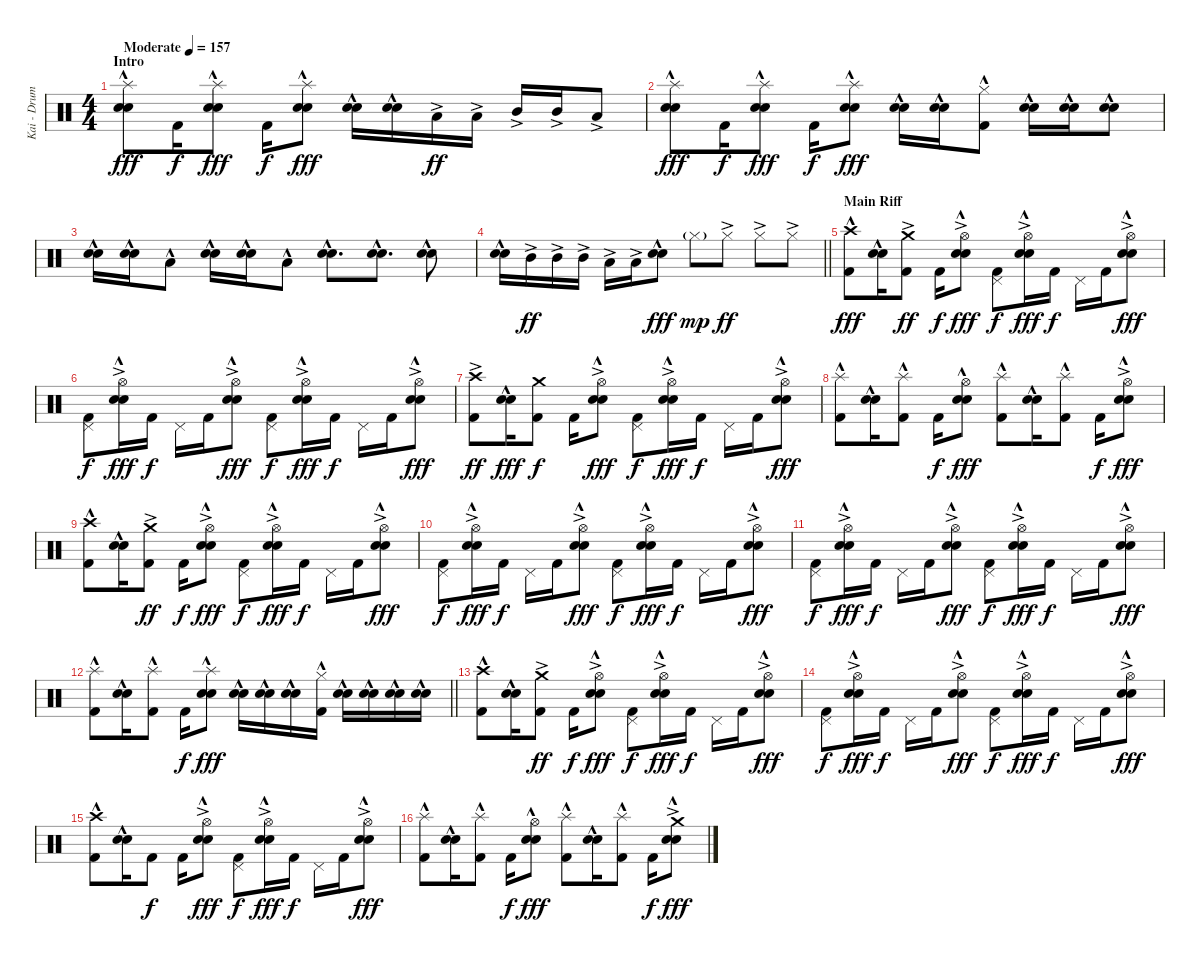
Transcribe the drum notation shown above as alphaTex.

\track ("Kai - Drums" "Kai - Drum") {instrument percussion}
\staff {score}
\articulation defaults
\ts (4 4)
\section ("" "Intro")
\tempo (157 "Moderate")
\clef neutral
\ks c
("Splash (hit)"{hac} "Electric Snare (hit)"{hac} "Snare (hit) 2").8{dy fff} "Kick (hit) 2".16{dy f} ("Splash (hit)"{hac} "Electric Snare (hit)"{hac} "Snare (hit) 2").8{dy fff} "Kick (hit) 2".16{dy f} ("Splash (hit)"{hac} "Electric Snare (hit)"{hac} "Snare (hit) 2").8{dy fff} ("Electric Snare (hit)"{hac} "Snare (hit) 2").16 ("Electric Snare (hit)"{hac} "Snare (hit) 2").16 "Low Tom (hit)"{ac}.16{dy ff} "Low Tom (hit)"{ac}.16 "Mid Tom (hit)"{ac}.16 "Mid Tom (hit)"{ac}.16 "Low Tom (hit)"{ac}.8 |
("Splash (hit)"{hac} "Electric Snare (hit)"{hac} "Snare (hit) 2").8{dy fff} "Kick (hit) 2".16{dy f} ("Splash (hit)"{hac} "Electric Snare (hit)"{hac} "Snare (hit) 2").8{dy fff} "Kick (hit) 2".16{dy f} ("Splash (hit)"{hac} "Electric Snare (hit)"{hac} "Snare (hit) 2").8{dy fff} ("Electric Snare (hit)"{hac} "Snare (hit) 2").16 ("Electric Snare (hit)"{hac} "Snare (hit) 2").16 ("Hi-Hat (closed)"{hac} "Kick (hit) 2").8 ("Electric Snare (hit)"{hac} "Snare (hit) 2").16 ("Electric Snare (hit)"{hac} "Snare (hit) 2").16 ("Electric Snare (hit)"{hac} "Snare (hit) 2").8 |
("Electric Snare (hit)"{hac} "Snare (hit) 2").16 ("Electric Snare (hit)"{hac} "Snare (hit) 2").16 "Low Tom (hit)"{hac}.8 ("Electric Snare (hit)"{hac} "Snare (hit) 2").16 ("Electric Snare (hit)"{hac} "Snare (hit) 2").16 "Low Tom (hit)"{hac}.8 ("Electric Snare (hit)"{hac} "Snare (hit) 2").8{d} ("Electric Snare (hit)"{hac} "Snare (hit) 2").8{d} ("Electric Snare (hit)"{hac} "Snare (hit) 2").8 |
\barLineRight lightlight
("Electric Snare (hit)"{hac} "Snare (hit) 2").16 "Mid Tom (hit)"{ac}.16{dy ff} "Mid Tom (hit)"{ac}.16 "Mid Tom (hit)"{ac}.16 "Low Tom (hit)"{ac}.16 "Low Tom (hit)"{ac}.16 ("Electric Snare (hit)"{hac} "Snare (hit) 2").8{dy fff} "Hi-Hat (closed)"{g}.8{dy mp} "Hi-Hat (closed)"{ac}.8{dy ff} "Hi-Hat (closed)"{ac}.8 "Hi-Hat (closed)"{ac}.8 |
\section ("" "Main Riff")
("Crash high (hit)"{hac} "Kick (hit) 2").8{dy fff} ("Electric Snare (hit)"{hac} "Snare (hit) 2").16 ("Crash medium (hit)"{ac} "Kick (hit) 2").8{dy ff} "Kick (hit) 2".16{dy f} ("Hi-Hat (open)"{ac} "Electric Snare (hit)"{hac} "Snare (hit) 2").8{dy fff} ("Pedal Hi-Hat (hit)" "Kick (hit) 2").8{dy f} ("Hi-Hat (open)"{ac} "Electric Snare (hit)"{hac} "Snare (hit) 2").16{dy fff} "Kick (hit) 2".16{dy f} "Pedal Hi-Hat (hit)".16 "Kick (hit) 2".16 ("Hi-Hat (open)"{ac} "Electric Snare (hit)"{hac} "Snare (hit) 2").8{dy fff} |
("Pedal Hi-Hat (hit)" "Kick (hit) 2").8{dy f} ("Hi-Hat (open)"{ac} "Electric Snare (hit)"{hac} "Snare (hit) 2").16{dy fff} "Kick (hit) 2".16{dy f} "Pedal Hi-Hat (hit)".16 "Kick (hit) 2".16 ("Hi-Hat (open)"{ac} "Electric Snare (hit)"{hac} "Snare (hit) 2").8{dy fff} ("Pedal Hi-Hat (hit)" "Kick (hit) 2").8{dy f} ("Hi-Hat (open)"{ac} "Electric Snare (hit)"{hac} "Snare (hit) 2").16{dy fff} "Kick (hit) 2".16{dy f} "Pedal Hi-Hat (hit)".16 "Kick (hit) 2".16 ("Hi-Hat (open)"{ac} "Electric Snare (hit)"{hac} "Snare (hit) 2").8{dy fff} |
("Crash high (hit)"{ac} "Kick (hit) 2").8{dy ff} ("Electric Snare (hit)"{hac} "Snare (hit) 2").16{dy fff} ("Crash medium (hit)" "Kick (hit) 2").8{dy f} "Kick (hit) 2".16 ("Hi-Hat (open)"{ac} "Electric Snare (hit)"{hac} "Snare (hit) 2").8{dy fff} ("Pedal Hi-Hat (hit)" "Kick (hit) 2").8{dy f} ("Hi-Hat (open)"{ac} "Electric Snare (hit)"{hac} "Snare (hit) 2").16{dy fff} "Kick (hit) 2".16{dy f} "Pedal Hi-Hat (hit)".16 "Kick (hit) 2".16 ("Hi-Hat (open)"{ac} "Electric Snare (hit)"{hac} "Snare (hit) 2").8{dy fff} |
("Splash (hit)"{hac} "Kick (hit) 2").8 ("Electric Snare (hit)"{hac} "Snare (hit) 2").16 ("Splash (hit)"{hac} "Kick (hit) 2").8 "Kick (hit) 2".16{dy f} ("Hi-Hat (open)" "Electric Snare (hit)"{hac} "Snare (hit) 2").8{dy fff} ("Splash (hit)"{hac} "Kick (hit) 2").8 ("Electric Snare (hit)"{hac} "Snare (hit) 2").16 ("Splash (hit)"{hac} "Kick (hit) 2").8 "Kick (hit) 2".16{dy f} ("Hi-Hat (open)"{ac} "Electric Snare (hit)"{hac} "Snare (hit) 2").8{dy fff} |
("Crash high (hit)"{hac} "Kick (hit) 2").8 ("Electric Snare (hit)"{hac} "Snare (hit) 2").16 ("Crash medium (hit)"{ac} "Kick (hit) 2").8{dy ff} "Kick (hit) 2".16{dy f} ("Hi-Hat (open)"{ac} "Electric Snare (hit)"{hac} "Snare (hit) 2").8{dy fff} ("Pedal Hi-Hat (hit)" "Kick (hit) 2").8{dy f} ("Hi-Hat (open)"{ac} "Electric Snare (hit)"{hac} "Snare (hit) 2").16{dy fff} "Kick (hit) 2".16{dy f} "Pedal Hi-Hat (hit)".16 "Kick (hit) 2".16 ("Hi-Hat (open)"{ac} "Electric Snare (hit)"{hac} "Snare (hit) 2").8{dy fff} |
("Pedal Hi-Hat (hit)" "Kick (hit) 2").8{dy f} ("Hi-Hat (open)"{ac} "Electric Snare (hit)"{hac} "Snare (hit) 2").16{dy fff} "Kick (hit) 2".16{dy f} "Pedal Hi-Hat (hit)".16 "Kick (hit) 2".16 ("Hi-Hat (open)"{ac} "Electric Snare (hit)"{hac} "Snare (hit) 2").8{dy fff} ("Pedal Hi-Hat (hit)" "Kick (hit) 2").8{dy f} ("Hi-Hat (open)"{ac} "Electric Snare (hit)"{hac} "Snare (hit) 2").16{dy fff} "Kick (hit) 2".16{dy f} "Pedal Hi-Hat (hit)".16 "Kick (hit) 2".16 ("Hi-Hat (open)"{ac} "Electric Snare (hit)"{hac} "Snare (hit) 2").8{dy fff} |
("Pedal Hi-Hat (hit)" "Kick (hit) 2").8{dy f} ("Hi-Hat (open)"{ac} "Electric Snare (hit)"{hac} "Snare (hit) 2").16{dy fff} "Kick (hit) 2".16{dy f} "Pedal Hi-Hat (hit)".16 "Kick (hit) 2".16 ("Hi-Hat (open)"{ac} "Electric Snare (hit)"{hac} "Snare (hit) 2").8{dy fff} ("Pedal Hi-Hat (hit)" "Kick (hit) 2").8{dy f} ("Hi-Hat (open)"{ac} "Electric Snare (hit)"{hac} "Snare (hit) 2").16{dy fff} "Kick (hit) 2".16{dy f} "Pedal Hi-Hat (hit)".16 "Kick (hit) 2".16 ("Hi-Hat (open)"{ac} "Electric Snare (hit)"{hac} "Snare (hit) 2").8{dy fff} |
\barLineRight lightlight
("Splash (hit)"{hac} "Kick (hit) 2").8 ("Electric Snare (hit)"{hac} "Snare (hit) 2").16 ("Splash (hit)"{hac} "Kick (hit) 2").8 "Kick (hit) 2".16{dy f} ("Splash (hit)"{hac} "Electric Snare (hit)"{hac} "Snare (hit) 2").8{dy fff} ("Electric Snare (hit)"{hac} "Snare (hit) 2").16 ("Electric Snare (hit)"{hac} "Snare (hit) 2").16 ("Electric Snare (hit)"{hac} "Snare (hit) 2").16 ("Hi-Hat (closed)"{hac} "Kick (hit) 2").16 ("Electric Snare (hit)"{hac} "Snare (hit) 2").16 ("Electric Snare (hit)"{hac} "Snare (hit) 2").16 ("Electric Snare (hit)"{hac} "Snare (hit) 2").16 ("Electric Snare (hit)"{hac} "Snare (hit) 2").16 |
\section ("" "")
("Crash high (hit)"{hac} "Kick (hit) 2").8 ("Electric Snare (hit)"{hac} "Snare (hit) 2").16 ("Crash medium (hit)"{ac} "Kick (hit) 2").8{dy ff} "Kick (hit) 2".16{dy f} ("Hi-Hat (open)"{ac} "Electric Snare (hit)"{hac} "Snare (hit) 2").8{dy fff} ("Pedal Hi-Hat (hit)" "Kick (hit) 2").8{dy f} ("Hi-Hat (open)"{ac} "Electric Snare (hit)"{hac} "Snare (hit) 2").16{dy fff} "Kick (hit) 2".16{dy f} "Pedal Hi-Hat (hit)".16 "Kick (hit) 2".16 ("Hi-Hat (open)"{ac} "Electric Snare (hit)"{hac} "Snare (hit) 2").8{dy fff} |
("Pedal Hi-Hat (hit)" "Kick (hit) 2").8{dy f} ("Hi-Hat (open)"{ac} "Electric Snare (hit)"{hac} "Snare (hit) 2").16{dy fff} "Kick (hit) 2".16{dy f} "Pedal Hi-Hat (hit)".16 "Kick (hit) 2".16 ("Hi-Hat (open)"{ac} "Electric Snare (hit)"{hac} "Snare (hit) 2").8{dy fff} ("Pedal Hi-Hat (hit)" "Kick (hit) 2").8{dy f} ("Hi-Hat (open)"{ac} "Electric Snare (hit)"{hac} "Snare (hit) 2").16{dy fff} "Kick (hit) 2".16{dy f} "Pedal Hi-Hat (hit)".16 "Kick (hit) 2".16 ("Hi-Hat (open)"{ac} "Electric Snare (hit)"{hac} "Snare (hit) 2").8{dy fff} |
("Crash high (hit)"{hac} "Kick (hit) 2").8 ("Electric Snare (hit)"{hac} "Snare (hit) 2").16 "Kick (hit) 2".8{dy f} "Kick (hit) 2".16 ("Hi-Hat (open)"{ac} "Electric Snare (hit)"{hac} "Snare (hit) 2").8{dy fff} ("Pedal Hi-Hat (hit)" "Kick (hit) 2").8{dy f} ("Hi-Hat (open)"{ac} "Electric Snare (hit)"{hac} "Snare (hit) 2").16{dy fff} "Kick (hit) 2".16{dy f} "Pedal Hi-Hat (hit)".16 "Kick (hit) 2".16 ("Hi-Hat (open)"{ac} "Electric Snare (hit)"{hac} "Snare (hit) 2").8{dy fff} |
("Splash (hit)"{hac} "Kick (hit) 2").8 ("Electric Snare (hit)"{hac} "Snare (hit) 2").16 ("Splash (hit)"{hac} "Kick (hit) 2").8 "Kick (hit) 2".16{dy f} ("Hi-Hat (open)" "Electric Snare (hit)"{hac} "Snare (hit) 2").8{dy fff} ("Splash (hit)"{hac} "Kick (hit) 2").8 ("Electric Snare (hit)"{hac} "Snare (hit) 2").16 ("Splash (hit)"{hac} "Kick (hit) 2").8 "Kick (hit) 2".16{dy f} ("Crash medium (hit)"{ac} "Electric Snare (hit)"{hac} "Snare (hit) 2").8{dy fff}
